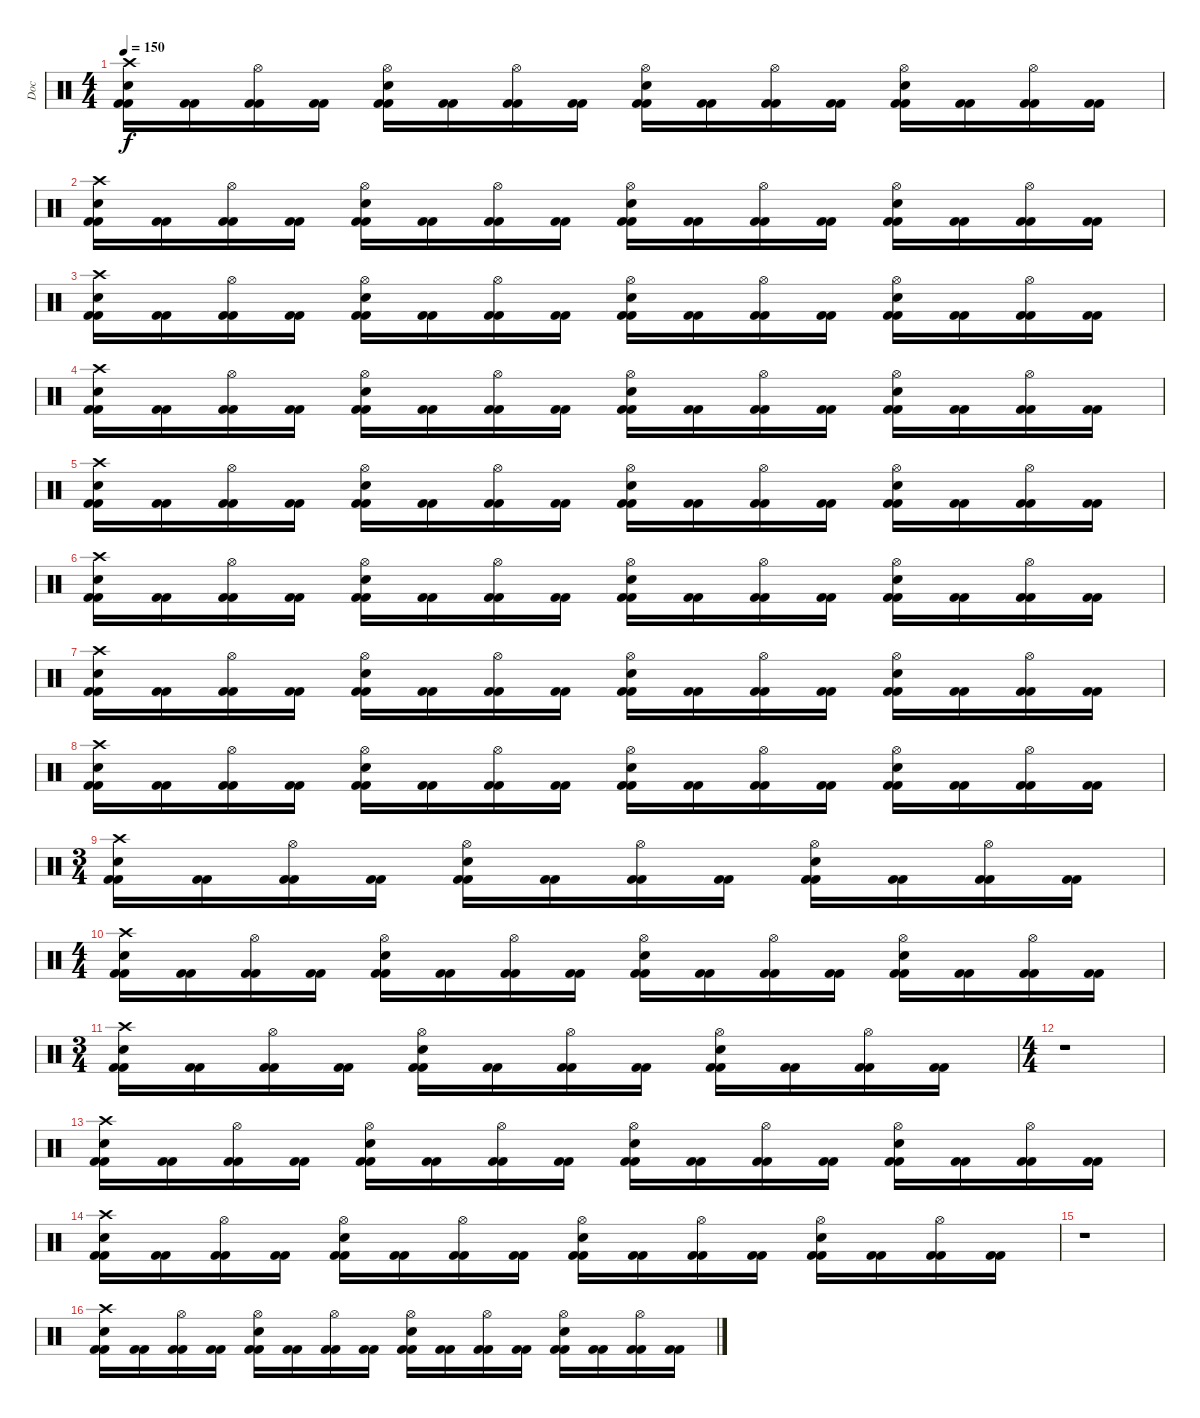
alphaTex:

\track ("Doc" "Doc") {instrument percussion}
\staff {score}
\articulation defaults
\ts (4 4)
\tempo 150
\clef neutral
\ks c
("Kick (hit) 2" "Crash high (hit)" "Electric Snare (hit)" "Kick (hit) 2").16{dy f} ("Kick (hit) 2" "Kick (hit) 2").16 ("Kick (hit) 2" "Hi-Hat (open)" "Kick (hit) 2").16 ("Kick (hit) 2" "Kick (hit) 2").16 ("Kick (hit) 2" "Hi-Hat (open)" "Electric Snare (hit)" "Kick (hit) 2").16 ("Kick (hit) 2" "Kick (hit) 2").16 ("Kick (hit) 2" "Hi-Hat (open)" "Kick (hit) 2").16 ("Kick (hit) 2" "Kick (hit) 2").16 ("Kick (hit) 2" "Hi-Hat (open)" "Electric Snare (hit)" "Kick (hit) 2").16 ("Kick (hit) 2" "Kick (hit) 2").16 ("Kick (hit) 2" "Hi-Hat (open)" "Kick (hit) 2").16 ("Kick (hit) 2" "Kick (hit) 2").16 ("Kick (hit) 2" "Hi-Hat (open)" "Electric Snare (hit)" "Kick (hit) 2").16 ("Kick (hit) 2" "Kick (hit) 2").16 ("Kick (hit) 2" "Hi-Hat (open)" "Kick (hit) 2").16 ("Kick (hit) 2" "Kick (hit) 2").16 |
("Kick (hit) 2" "Crash high (hit)" "Electric Snare (hit)" "Kick (hit) 2").16 ("Kick (hit) 2" "Kick (hit) 2").16 ("Kick (hit) 2" "Hi-Hat (open)" "Kick (hit) 2").16 ("Kick (hit) 2" "Kick (hit) 2").16 ("Kick (hit) 2" "Hi-Hat (open)" "Electric Snare (hit)" "Kick (hit) 2").16 ("Kick (hit) 2" "Kick (hit) 2").16 ("Kick (hit) 2" "Hi-Hat (open)" "Kick (hit) 2").16 ("Kick (hit) 2" "Kick (hit) 2").16 ("Kick (hit) 2" "Hi-Hat (open)" "Electric Snare (hit)" "Kick (hit) 2").16 ("Kick (hit) 2" "Kick (hit) 2").16 ("Kick (hit) 2" "Hi-Hat (open)" "Kick (hit) 2").16 ("Kick (hit) 2" "Kick (hit) 2").16 ("Kick (hit) 2" "Hi-Hat (open)" "Electric Snare (hit)" "Kick (hit) 2").16 ("Kick (hit) 2" "Kick (hit) 2").16 ("Kick (hit) 2" "Hi-Hat (open)" "Kick (hit) 2").16 ("Kick (hit) 2" "Kick (hit) 2").16 |
("Kick (hit) 2" "Crash high (hit)" "Electric Snare (hit)" "Kick (hit) 2").16 ("Kick (hit) 2" "Kick (hit) 2").16 ("Kick (hit) 2" "Hi-Hat (open)" "Kick (hit) 2").16 ("Kick (hit) 2" "Kick (hit) 2").16 ("Kick (hit) 2" "Hi-Hat (open)" "Electric Snare (hit)" "Kick (hit) 2").16 ("Kick (hit) 2" "Kick (hit) 2").16 ("Kick (hit) 2" "Hi-Hat (open)" "Kick (hit) 2").16 ("Kick (hit) 2" "Kick (hit) 2").16 ("Kick (hit) 2" "Hi-Hat (open)" "Electric Snare (hit)" "Kick (hit) 2").16 ("Kick (hit) 2" "Kick (hit) 2").16 ("Kick (hit) 2" "Hi-Hat (open)" "Kick (hit) 2").16 ("Kick (hit) 2" "Kick (hit) 2").16 ("Kick (hit) 2" "Hi-Hat (open)" "Electric Snare (hit)" "Kick (hit) 2").16 ("Kick (hit) 2" "Kick (hit) 2").16 ("Kick (hit) 2" "Hi-Hat (open)" "Kick (hit) 2").16 ("Kick (hit) 2" "Kick (hit) 2").16 |
("Kick (hit) 2" "Crash high (hit)" "Electric Snare (hit)" "Kick (hit) 2").16 ("Kick (hit) 2" "Kick (hit) 2").16 ("Kick (hit) 2" "Hi-Hat (open)" "Kick (hit) 2").16 ("Kick (hit) 2" "Kick (hit) 2").16 ("Kick (hit) 2" "Hi-Hat (open)" "Electric Snare (hit)" "Kick (hit) 2").16 ("Kick (hit) 2" "Kick (hit) 2").16 ("Kick (hit) 2" "Hi-Hat (open)" "Kick (hit) 2").16 ("Kick (hit) 2" "Kick (hit) 2").16 ("Kick (hit) 2" "Hi-Hat (open)" "Electric Snare (hit)" "Kick (hit) 2").16 ("Kick (hit) 2" "Kick (hit) 2").16 ("Kick (hit) 2" "Hi-Hat (open)" "Kick (hit) 2").16 ("Kick (hit) 2" "Kick (hit) 2").16 ("Kick (hit) 2" "Hi-Hat (open)" "Electric Snare (hit)" "Kick (hit) 2").16 ("Kick (hit) 2" "Kick (hit) 2").16 ("Kick (hit) 2" "Hi-Hat (open)" "Kick (hit) 2").16 ("Kick (hit) 2" "Kick (hit) 2").16 |
("Kick (hit) 2" "Crash high (hit)" "Electric Snare (hit)" "Kick (hit) 2").16 ("Kick (hit) 2" "Kick (hit) 2").16 ("Kick (hit) 2" "Hi-Hat (open)" "Kick (hit) 2").16 ("Kick (hit) 2" "Kick (hit) 2").16 ("Kick (hit) 2" "Hi-Hat (open)" "Electric Snare (hit)" "Kick (hit) 2").16 ("Kick (hit) 2" "Kick (hit) 2").16 ("Kick (hit) 2" "Hi-Hat (open)" "Kick (hit) 2").16 ("Kick (hit) 2" "Kick (hit) 2").16 ("Kick (hit) 2" "Hi-Hat (open)" "Electric Snare (hit)" "Kick (hit) 2").16 ("Kick (hit) 2" "Kick (hit) 2").16 ("Kick (hit) 2" "Hi-Hat (open)" "Kick (hit) 2").16 ("Kick (hit) 2" "Kick (hit) 2").16 ("Kick (hit) 2" "Hi-Hat (open)" "Electric Snare (hit)" "Kick (hit) 2").16 ("Kick (hit) 2" "Kick (hit) 2").16 ("Kick (hit) 2" "Hi-Hat (open)" "Kick (hit) 2").16 ("Kick (hit) 2" "Kick (hit) 2").16 |
("Kick (hit) 2" "Crash high (hit)" "Electric Snare (hit)" "Kick (hit) 2").16 ("Kick (hit) 2" "Kick (hit) 2").16 ("Kick (hit) 2" "Hi-Hat (open)" "Kick (hit) 2").16 ("Kick (hit) 2" "Kick (hit) 2").16 ("Kick (hit) 2" "Hi-Hat (open)" "Electric Snare (hit)" "Kick (hit) 2").16 ("Kick (hit) 2" "Kick (hit) 2").16 ("Kick (hit) 2" "Hi-Hat (open)" "Kick (hit) 2").16 ("Kick (hit) 2" "Kick (hit) 2").16 ("Kick (hit) 2" "Hi-Hat (open)" "Electric Snare (hit)" "Kick (hit) 2").16 ("Kick (hit) 2" "Kick (hit) 2").16 ("Kick (hit) 2" "Hi-Hat (open)" "Kick (hit) 2").16 ("Kick (hit) 2" "Kick (hit) 2").16 ("Kick (hit) 2" "Hi-Hat (open)" "Electric Snare (hit)" "Kick (hit) 2").16 ("Kick (hit) 2" "Kick (hit) 2").16 ("Kick (hit) 2" "Hi-Hat (open)" "Kick (hit) 2").16 ("Kick (hit) 2" "Kick (hit) 2").16 |
("Kick (hit) 2" "Crash high (hit)" "Electric Snare (hit)" "Kick (hit) 2").16 ("Kick (hit) 2" "Kick (hit) 2").16 ("Kick (hit) 2" "Hi-Hat (open)" "Kick (hit) 2").16 ("Kick (hit) 2" "Kick (hit) 2").16 ("Kick (hit) 2" "Hi-Hat (open)" "Electric Snare (hit)" "Kick (hit) 2").16 ("Kick (hit) 2" "Kick (hit) 2").16 ("Kick (hit) 2" "Hi-Hat (open)" "Kick (hit) 2").16 ("Kick (hit) 2" "Kick (hit) 2").16 ("Kick (hit) 2" "Hi-Hat (open)" "Electric Snare (hit)" "Kick (hit) 2").16 ("Kick (hit) 2" "Kick (hit) 2").16 ("Kick (hit) 2" "Hi-Hat (open)" "Kick (hit) 2").16 ("Kick (hit) 2" "Kick (hit) 2").16 ("Kick (hit) 2" "Hi-Hat (open)" "Electric Snare (hit)" "Kick (hit) 2").16 ("Kick (hit) 2" "Kick (hit) 2").16 ("Kick (hit) 2" "Hi-Hat (open)" "Kick (hit) 2").16 ("Kick (hit) 2" "Kick (hit) 2").16 |
("Kick (hit) 2" "Crash high (hit)" "Electric Snare (hit)" "Kick (hit) 2").16 ("Kick (hit) 2" "Kick (hit) 2").16 ("Kick (hit) 2" "Hi-Hat (open)" "Kick (hit) 2").16 ("Kick (hit) 2" "Kick (hit) 2").16 ("Kick (hit) 2" "Hi-Hat (open)" "Electric Snare (hit)" "Kick (hit) 2").16 ("Kick (hit) 2" "Kick (hit) 2").16 ("Kick (hit) 2" "Hi-Hat (open)" "Kick (hit) 2").16 ("Kick (hit) 2" "Kick (hit) 2").16 ("Kick (hit) 2" "Hi-Hat (open)" "Electric Snare (hit)" "Kick (hit) 2").16 ("Kick (hit) 2" "Kick (hit) 2").16 ("Kick (hit) 2" "Hi-Hat (open)" "Kick (hit) 2").16 ("Kick (hit) 2" "Kick (hit) 2").16 ("Kick (hit) 2" "Hi-Hat (open)" "Electric Snare (hit)" "Kick (hit) 2").16 ("Kick (hit) 2" "Kick (hit) 2").16 ("Kick (hit) 2" "Hi-Hat (open)" "Kick (hit) 2").16 ("Kick (hit) 2" "Kick (hit) 2").16 |
\ts (3 4)
("Kick (hit) 2" "Crash high (hit)" "Electric Snare (hit)" "Kick (hit) 2").16 ("Kick (hit) 2" "Kick (hit) 2").16 ("Kick (hit) 2" "Hi-Hat (open)" "Kick (hit) 2").16 ("Kick (hit) 2" "Kick (hit) 2").16 ("Kick (hit) 2" "Hi-Hat (open)" "Electric Snare (hit)" "Kick (hit) 2").16 ("Kick (hit) 2" "Kick (hit) 2").16 ("Kick (hit) 2" "Hi-Hat (open)" "Kick (hit) 2").16 ("Kick (hit) 2" "Kick (hit) 2").16 ("Kick (hit) 2" "Hi-Hat (open)" "Electric Snare (hit)" "Kick (hit) 2").16 ("Kick (hit) 2" "Kick (hit) 2").16 ("Kick (hit) 2" "Hi-Hat (open)" "Kick (hit) 2").16 ("Kick (hit) 2" "Kick (hit) 2").16 |
\ts (4 4)
("Kick (hit) 2" "Crash high (hit)" "Electric Snare (hit)" "Kick (hit) 2").16 ("Kick (hit) 2" "Kick (hit) 2").16 ("Kick (hit) 2" "Hi-Hat (open)" "Kick (hit) 2").16 ("Kick (hit) 2" "Kick (hit) 2").16 ("Kick (hit) 2" "Hi-Hat (open)" "Electric Snare (hit)" "Kick (hit) 2").16 ("Kick (hit) 2" "Kick (hit) 2").16 ("Kick (hit) 2" "Hi-Hat (open)" "Kick (hit) 2").16 ("Kick (hit) 2" "Kick (hit) 2").16 ("Kick (hit) 2" "Hi-Hat (open)" "Electric Snare (hit)" "Kick (hit) 2").16 ("Kick (hit) 2" "Kick (hit) 2").16 ("Kick (hit) 2" "Hi-Hat (open)" "Kick (hit) 2").16 ("Kick (hit) 2" "Kick (hit) 2").16 ("Kick (hit) 2" "Hi-Hat (open)" "Electric Snare (hit)" "Kick (hit) 2").16 ("Kick (hit) 2" "Kick (hit) 2").16 ("Kick (hit) 2" "Hi-Hat (open)" "Kick (hit) 2").16 ("Kick (hit) 2" "Kick (hit) 2").16 |
\ts (3 4)
("Kick (hit) 2" "Crash high (hit)" "Electric Snare (hit)" "Kick (hit) 2").16 ("Kick (hit) 2" "Kick (hit) 2").16 ("Kick (hit) 2" "Hi-Hat (open)" "Kick (hit) 2").16 ("Kick (hit) 2" "Kick (hit) 2").16 ("Kick (hit) 2" "Hi-Hat (open)" "Electric Snare (hit)" "Kick (hit) 2").16 ("Kick (hit) 2" "Kick (hit) 2").16 ("Kick (hit) 2" "Hi-Hat (open)" "Kick (hit) 2").16 ("Kick (hit) 2" "Kick (hit) 2").16 ("Kick (hit) 2" "Hi-Hat (open)" "Electric Snare (hit)" "Kick (hit) 2").16 ("Kick (hit) 2" "Kick (hit) 2").16 ("Kick (hit) 2" "Hi-Hat (open)" "Kick (hit) 2").16 ("Kick (hit) 2" "Kick (hit) 2").16 |
\ts (4 4)
r.1 |
("Kick (hit) 2" "Crash high (hit)" "Electric Snare (hit)" "Kick (hit) 2").16 ("Kick (hit) 2" "Kick (hit) 2").16 ("Kick (hit) 2" "Hi-Hat (open)" "Kick (hit) 2").16 ("Kick (hit) 2" "Kick (hit) 2").16 ("Kick (hit) 2" "Hi-Hat (open)" "Electric Snare (hit)" "Kick (hit) 2").16 ("Kick (hit) 2" "Kick (hit) 2").16 ("Kick (hit) 2" "Hi-Hat (open)" "Kick (hit) 2").16 ("Kick (hit) 2" "Kick (hit) 2").16 ("Kick (hit) 2" "Hi-Hat (open)" "Electric Snare (hit)" "Kick (hit) 2").16 ("Kick (hit) 2" "Kick (hit) 2").16 ("Kick (hit) 2" "Hi-Hat (open)" "Kick (hit) 2").16 ("Kick (hit) 2" "Kick (hit) 2").16 ("Kick (hit) 2" "Hi-Hat (open)" "Electric Snare (hit)" "Kick (hit) 2").16 ("Kick (hit) 2" "Kick (hit) 2").16 ("Kick (hit) 2" "Hi-Hat (open)" "Kick (hit) 2").16 ("Kick (hit) 2" "Kick (hit) 2").16 |
("Kick (hit) 2" "Crash high (hit)" "Electric Snare (hit)" "Kick (hit) 2").16 ("Kick (hit) 2" "Kick (hit) 2").16 ("Kick (hit) 2" "Hi-Hat (open)" "Kick (hit) 2").16 ("Kick (hit) 2" "Kick (hit) 2").16 ("Kick (hit) 2" "Hi-Hat (open)" "Electric Snare (hit)" "Kick (hit) 2").16 ("Kick (hit) 2" "Kick (hit) 2").16 ("Kick (hit) 2" "Hi-Hat (open)" "Kick (hit) 2").16 ("Kick (hit) 2" "Kick (hit) 2").16 ("Kick (hit) 2" "Hi-Hat (open)" "Electric Snare (hit)" "Kick (hit) 2").16 ("Kick (hit) 2" "Kick (hit) 2").16 ("Kick (hit) 2" "Hi-Hat (open)" "Kick (hit) 2").16 ("Kick (hit) 2" "Kick (hit) 2").16 ("Kick (hit) 2" "Hi-Hat (open)" "Electric Snare (hit)" "Kick (hit) 2").16 ("Kick (hit) 2" "Kick (hit) 2").16 ("Kick (hit) 2" "Hi-Hat (open)" "Kick (hit) 2").16 ("Kick (hit) 2" "Kick (hit) 2").16 |
r.1 |
("Kick (hit) 2" "Crash high (hit)" "Electric Snare (hit)" "Kick (hit) 2").16 ("Kick (hit) 2" "Kick (hit) 2").16 ("Kick (hit) 2" "Hi-Hat (open)" "Kick (hit) 2").16 ("Kick (hit) 2" "Kick (hit) 2").16 ("Kick (hit) 2" "Hi-Hat (open)" "Electric Snare (hit)" "Kick (hit) 2").16 ("Kick (hit) 2" "Kick (hit) 2").16 ("Kick (hit) 2" "Hi-Hat (open)" "Kick (hit) 2").16 ("Kick (hit) 2" "Kick (hit) 2").16 ("Kick (hit) 2" "Hi-Hat (open)" "Electric Snare (hit)" "Kick (hit) 2").16 ("Kick (hit) 2" "Kick (hit) 2").16 ("Kick (hit) 2" "Hi-Hat (open)" "Kick (hit) 2").16 ("Kick (hit) 2" "Kick (hit) 2").16 ("Kick (hit) 2" "Hi-Hat (open)" "Electric Snare (hit)" "Kick (hit) 2").16 ("Kick (hit) 2" "Kick (hit) 2").16 ("Kick (hit) 2" "Hi-Hat (open)" "Kick (hit) 2").16 ("Kick (hit) 2" "Kick (hit) 2").16
